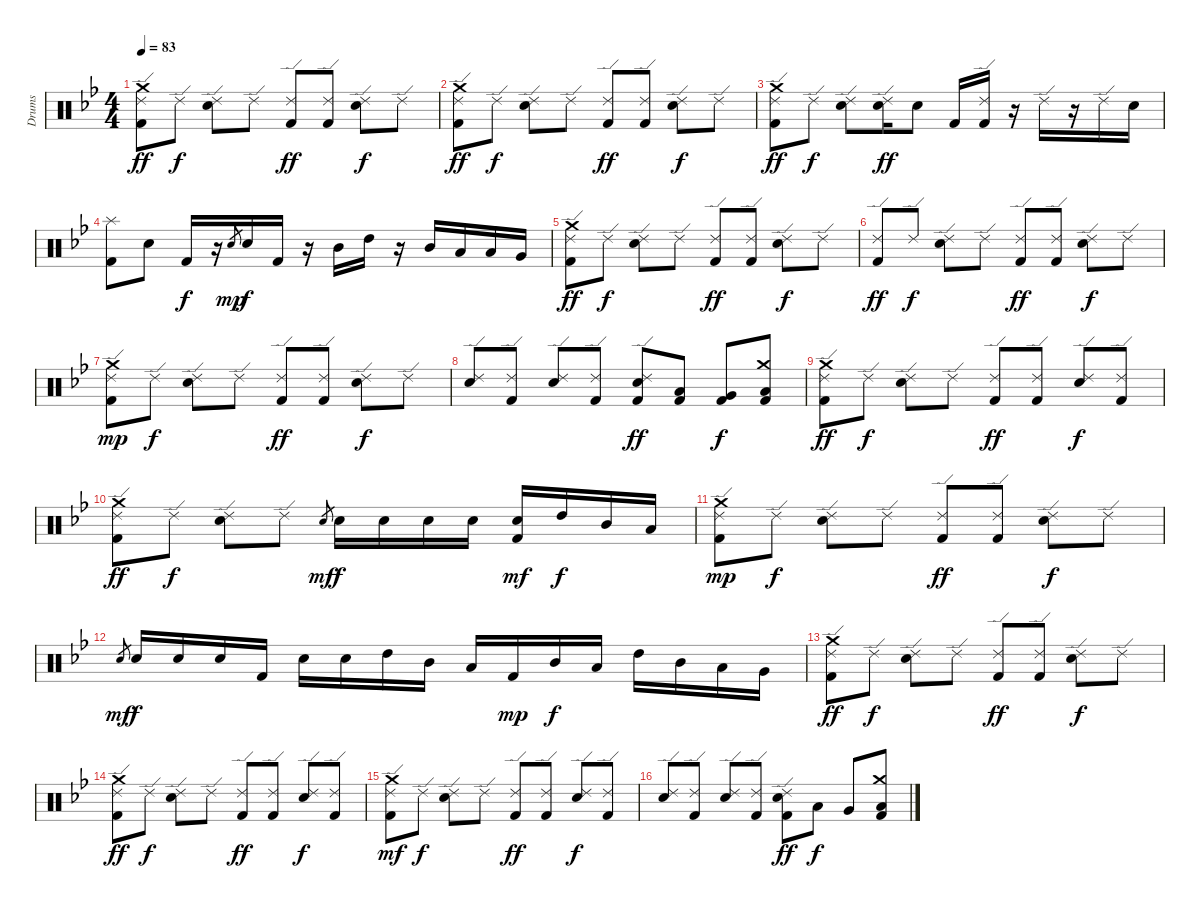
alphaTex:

\track ("Drums" "Drums") {instrument percussion}
\staff {score}
\articulation defaults
\ts (4 4)
\tempo 83
\clef neutral
\ks gminor
("Ride (edge) 2" "Kick (hit) 2" "Crash medium (hit)").8{dy ff} "Ride (edge) 2".8{dy f} ("Ride (edge) 2" "Electric Snare (hit)").8 "Ride (edge) 2".8 ("Ride (edge) 2" "Kick (hit) 2").8{dy ff} ("Ride (edge) 2" "Kick (hit) 2").8 ("Ride (edge) 2" "Electric Snare (hit)").8{dy f} "Ride (edge) 2".8 |
("Ride (edge) 2" "Kick (hit) 2" "Crash medium (hit)").8{dy ff} "Ride (edge) 2".8{dy f} ("Ride (edge) 2" "Electric Snare (hit)").8 "Ride (edge) 2".8 ("Ride (edge) 2" "Kick (hit) 2").8{dy ff} ("Ride (edge) 2" "Kick (hit) 2").8 ("Ride (edge) 2" "Electric Snare (hit)").8{dy f} "Ride (edge) 2".8 |
("Ride (edge) 2" "Kick (hit) 2" "Crash medium (hit)").8{dy ff} "Ride (edge) 2".8{dy f} ("Ride (edge) 2" "Electric Snare (hit)").8 ("Ride (edge) 2" "Electric Snare (hit)").16{dy ff} "Electric Snare (hit)".8 "Kick (hit) 2".16 ("Ride (edge) 2" "Kick (hit) 2").16 r.16 "Ride (edge) 2".16 r.16 "Ride (edge) 2".16 "Electric Snare (hit)".16 |
("Splash (hit)" "Kick (hit) 2").8 "Electric Snare (hit)".8 "Kick (hit) 2".16{dy f} r.16 "Electric Snare (hit)".8{gr dy mp} "Electric Snare (hit)".16{dy f} "Kick (hit) 2".16 r.16 "Mid Tom (hit)".16 "High Tom (hit)".16 r.16 "Mid Tom (hit)".16 "Low Tom (hit)".16 "Low Tom (hit)".16 "Very Low Tom (hit)".16 |
("Ride (edge) 2" "Kick (hit) 2" "Crash medium (hit)").8{dy ff} "Ride (edge) 2".8{dy f} ("Ride (edge) 2" "Electric Snare (hit)").8 "Ride (edge) 2".8 ("Ride (edge) 2" "Kick (hit) 2").8{dy ff} ("Ride (edge) 2" "Kick (hit) 2").8 ("Ride (edge) 2" "Electric Snare (hit)").8{dy f} "Ride (edge) 2".8 |
("Ride (edge) 2" "Kick (hit) 2").8{dy ff} "Ride (edge) 2".8{dy f} ("Ride (edge) 2" "Electric Snare (hit)").8 "Ride (edge) 2".8 ("Ride (edge) 2" "Kick (hit) 2").8{dy ff} ("Ride (edge) 2" "Kick (hit) 2").8 ("Ride (edge) 2" "Electric Snare (hit)").8{dy f} "Ride (edge) 2".8 |
("Ride (edge) 2" "Kick (hit) 2" "Crash medium (hit)").8{dy mp} "Ride (edge) 2".8{dy f} ("Ride (edge) 2" "Electric Snare (hit)").8 "Ride (edge) 2".8 ("Ride (edge) 2" "Kick (hit) 2").8{dy ff} ("Ride (edge) 2" "Kick (hit) 2").8 ("Ride (edge) 2" "Electric Snare (hit)").8{dy f} "Ride (edge) 2".8 |
("Ride (edge) 2" "Electric Snare (hit)").8 ("Ride (edge) 2" "Kick (hit) 2").8 ("Ride (edge) 2" "Electric Snare (hit)").8 ("Ride (edge) 2" "Kick (hit) 2").8 ("Ride (edge) 2" "Kick (hit) 2" "Electric Snare (hit)").8{dy ff} ("Kick (hit) 2" "Low Tom (hit)").8 ("Kick (hit) 2" "Very Low Tom (hit)").8{dy f} ("Kick (hit) 2" "Low Floor Tom (hit)" "Crash medium (hit)").8 |
("Ride (edge) 2" "Kick (hit) 2" "Crash medium (hit)").8{dy ff} "Ride (edge) 2".8{dy f} ("Ride (edge) 2" "Electric Snare (hit)").8 "Ride (edge) 2".8 ("Ride (edge) 2" "Kick (hit) 2").8{dy ff} ("Ride (edge) 2" "Kick (hit) 2").8 ("Ride (edge) 2" "Electric Snare (hit)").8{dy f} ("Ride (edge) 2" "Kick (hit) 2").8 |
("Ride (edge) 2" "Kick (hit) 2" "Crash medium (hit)").8{dy ff} "Ride (edge) 2".8{dy f} ("Ride (edge) 2" "Electric Snare (hit)").8 "Ride (edge) 2".8 "Electric Snare (hit)".8{gr dy mf} "Electric Snare (hit)".16{dy f} "Electric Snare (hit)".16 "Electric Snare (hit)".16 "Electric Snare (hit)".16 ("Kick (hit) 2" "Electric Snare (hit)").16{dy mf} "High Tom (hit)".16{dy f} "Mid Tom (hit)".16 "Low Tom (hit)".16 |
("Ride (edge) 2" "Kick (hit) 2" "Crash medium (hit)").8{dy mp} "Ride (edge) 2".8{dy f} ("Ride (edge) 2" "Electric Snare (hit)").8 "Ride (edge) 2".8 ("Ride (edge) 2" "Kick (hit) 2").8{dy ff} ("Ride (edge) 2" "Kick (hit) 2").8 ("Ride (edge) 2" "Electric Snare (hit)").8{dy f} "Ride (edge) 2".8 |
"Electric Snare (hit)".8{gr dy mf} "Electric Snare (hit)".16{dy f} "Electric Snare (hit)".16 "Electric Snare (hit)".16 "Kick (hit) 2".16 "Electric Snare (hit)".16 "Electric Snare (hit)".16 "High Tom (hit)".16 "Mid Tom (hit)".16 "Low Floor Tom (hit)".16 "Kick (hit) 2".16{dy mp} "Mid Tom (hit)".16{dy f} "Low Tom (hit)".16 "High Tom (hit)".16 "Mid Tom (hit)".16 "Low Tom (hit)".16 "Very Low Tom (hit)".16 |
("Ride (edge) 2" "Kick (hit) 2" "Crash medium (hit)").8{dy ff} "Ride (edge) 2".8{dy f} ("Ride (edge) 2" "Electric Snare (hit)").8 "Ride (edge) 2".8 ("Ride (edge) 2" "Kick (hit) 2").8{dy ff} ("Ride (edge) 2" "Kick (hit) 2").8 ("Ride (edge) 2" "Electric Snare (hit)").8{dy f} "Ride (edge) 2".8 |
("Ride (edge) 2" "Kick (hit) 2" "Crash medium (hit)").8{dy ff} "Ride (edge) 2".8{dy f} ("Ride (edge) 2" "Electric Snare (hit)").8 "Ride (edge) 2".8 ("Ride (edge) 2" "Kick (hit) 2").8{dy ff} ("Ride (edge) 2" "Kick (hit) 2").8 ("Ride (edge) 2" "Electric Snare (hit)").8{dy f} ("Ride (edge) 2" "Kick (hit) 2").8 |
("Ride (edge) 2" "Kick (hit) 2" "Crash medium (hit)").8{dy mf} "Ride (edge) 2".8{dy f} ("Ride (edge) 2" "Electric Snare (hit)").8 "Ride (edge) 2".8 ("Ride (edge) 2" "Kick (hit) 2").8{dy ff} ("Ride (edge) 2" "Kick (hit) 2").8 ("Ride (edge) 2" "Electric Snare (hit)").8{dy f} ("Ride (edge) 2" "Kick (hit) 2").8 |
("Ride (edge) 2" "Electric Snare (hit)").8 ("Ride (edge) 2" "Kick (hit) 2").8 ("Ride (edge) 2" "Electric Snare (hit)").8 ("Ride (edge) 2" "Kick (hit) 2").8 ("Ride (edge) 2" "Kick (hit) 2" "Electric Snare (hit)").8{dy ff} "Low Tom (hit)".8{dy f} "Very Low Tom (hit)".8 ("Kick (hit) 2" "Low Floor Tom (hit)" "Crash medium (hit)").8
